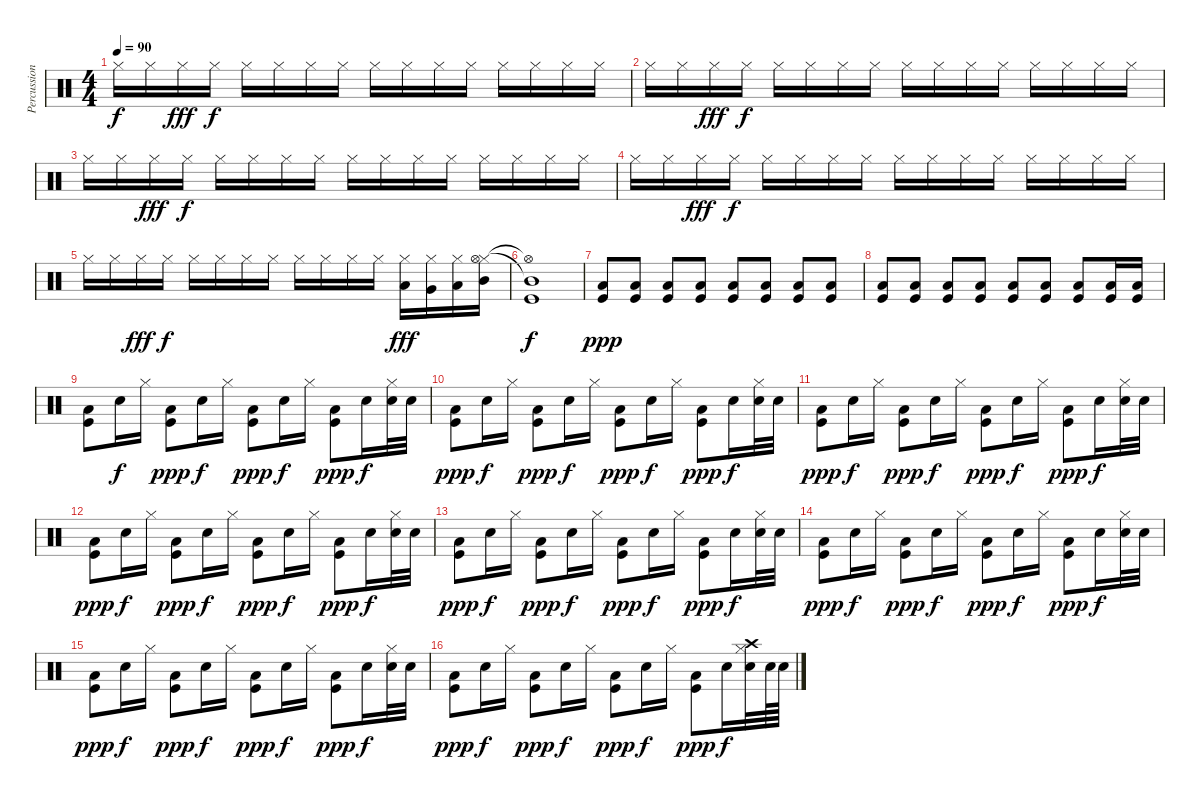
\track ("Percussions" "Percussion") {instrument percussion}
\staff {score}
\articulation defaults
\ts (4 4)
\tempo 90
\clef neutral
\ks c "Hi-Hat (closed)".16{dy f} "Hi-Hat (closed)".16 "Hi-Hat (closed)".16{dy fff} "Hi-Hat (closed)".16{dy f} "Hi-Hat (closed)".16 "Hi-Hat (closed)".16 "Hi-Hat (closed)".16 "Hi-Hat (closed)".16 "Hi-Hat (closed)".16 "Hi-Hat (closed)".16 "Hi-Hat (closed)".16 "Hi-Hat (closed)".16 "Hi-Hat (closed)".16 "Hi-Hat (closed)".16 "Hi-Hat (closed)".16 "Hi-Hat (closed)".16
|
"Hi-Hat (closed)".16 "Hi-Hat (closed)".16 "Hi-Hat (closed)".16{dy fff} "Hi-Hat (closed)".16{dy f} "Hi-Hat (closed)".16 "Hi-Hat (closed)".16 "Hi-Hat (closed)".16 "Hi-Hat (closed)".16 "Hi-Hat (closed)".16 "Hi-Hat (closed)".16 "Hi-Hat (closed)".16 "Hi-Hat (closed)".16 "Hi-Hat (closed)".16 "Hi-Hat (closed)".16 "Hi-Hat (closed)".16 "Hi-Hat (closed)".16 |
"Hi-Hat (closed)".16 "Hi-Hat (closed)".16 "Hi-Hat (closed)".16{dy fff} "Hi-Hat (closed)".16{dy f} "Hi-Hat (closed)".16 "Hi-Hat (closed)".16 "Hi-Hat (closed)".16 "Hi-Hat (closed)".16 "Hi-Hat (closed)".16 "Hi-Hat (closed)".16 "Hi-Hat (closed)".16 "Hi-Hat (closed)".16 "Hi-Hat (closed)".16 "Hi-Hat (closed)".16 "Hi-Hat (closed)".16 "Hi-Hat (closed)".16 |
"Hi-Hat (closed)".16 "Hi-Hat (closed)".16 "Hi-Hat (closed)".16{dy fff} "Hi-Hat (closed)".16{dy f} "Hi-Hat (closed)".16 "Hi-Hat (closed)".16 "Hi-Hat (closed)".16 "Hi-Hat (closed)".16 "Hi-Hat (closed)".16 "Hi-Hat (closed)".16 "Hi-Hat (closed)".16 "Hi-Hat (closed)".16 "Hi-Hat (closed)".16 "Hi-Hat (closed)".16 "Hi-Hat (closed)".16 "Hi-Hat (closed)".16 |
"Hi-Hat (closed)".16 "Hi-Hat (closed)".16 "Hi-Hat (closed)".16{dy fff} "Hi-Hat (closed)".16{dy f} "Hi-Hat (closed)".16 "Hi-Hat (closed)".16 "Hi-Hat (closed)".16 "Hi-Hat (closed)".16 "Hi-Hat (closed)".16 "Hi-Hat (closed)".16 "Hi-Hat (closed)".16 "Hi-Hat (closed)".16 ("Hi-Hat (closed)" "Low Floor Tom (hit)").16{dy fff} ("Hi-Hat (closed)" "Very Low Tom (hit)").16 ("Hi-Hat (closed)" "Low Tom (hit)").16 ("Hi-Hat (closed)" "Hi-Hat (open)" "Mid Tom (hit)").16 |
("Hi-Hat (open)"{t} "Mid Tom (hit)"{t} "Kick (hit)").1{dy f} |
("Kick (hit)" "Low Floor Tom (hit)").8{dy ppp} ("Low Floor Tom (hit)" "Kick (hit)").8 ("Kick (hit)" "Low Floor Tom (hit)").8 ("Low Floor Tom (hit)" "Kick (hit)").8 ("Kick (hit)" "Low Floor Tom (hit)").8 ("Low Floor Tom (hit)" "Kick (hit)").8 ("Kick (hit)" "Low Floor Tom (hit)").8 ("Low Floor Tom (hit)" "Kick (hit)").8 |
("Kick (hit)" "Low Floor Tom (hit)").8 ("Low Floor Tom (hit)" "Kick (hit)").8 ("Kick (hit)" "Low Floor Tom (hit)").8 ("Low Floor Tom (hit)" "Kick (hit)").8 ("Kick (hit)" "Low Floor Tom (hit)").8 ("Low Floor Tom (hit)" "Kick (hit)").8 ("Kick (hit)" "Low Floor Tom (hit)").8 ("Low Floor Tom (hit)" "Kick (hit)").16 ("Kick (hit)" "Low Floor Tom (hit)").16 |
("Kick (hit)" "Low Floor Tom (hit)").8 "Snare (hit) 2".16{dy f} "Hi-Hat (closed)".16 ("Kick (hit)" "Low Floor Tom (hit)").8{dy ppp} "Snare (hit) 2".16{dy f} "Hi-Hat (closed)".16 ("Kick (hit)" "Low Floor Tom (hit)").8{dy ppp} "Snare (hit) 2".16{dy f} "Hi-Hat (closed)".16 ("Low Floor Tom (hit)" "Kick (hit)").8{dy ppp} "Snare (hit) 2".16{dy f} ("Snare (hit) 2" "Hi-Hat (closed)").32 "Snare (hit) 2".32 |
("Kick (hit)" "Low Floor Tom (hit)").8{dy ppp} "Snare (hit) 2".16{dy f} "Hi-Hat (closed)".16 ("Kick (hit)" "Low Floor Tom (hit)").8{dy ppp} "Snare (hit) 2".16{dy f} "Hi-Hat (closed)".16 ("Kick (hit)" "Low Floor Tom (hit)").8{dy ppp} "Snare (hit) 2".16{dy f} "Hi-Hat (closed)".16 ("Low Floor Tom (hit)" "Kick (hit)").8{dy ppp} "Snare (hit) 2".16{dy f} ("Snare (hit) 2" "Hi-Hat (closed)").32 "Snare (hit) 2".32 |
("Kick (hit)" "Low Floor Tom (hit)").8{dy ppp} "Snare (hit) 2".16{dy f} "Hi-Hat (closed)".16 ("Kick (hit)" "Low Floor Tom (hit)").8{dy ppp} "Snare (hit) 2".16{dy f} "Hi-Hat (closed)".16 ("Kick (hit)" "Low Floor Tom (hit)").8{dy ppp} "Snare (hit) 2".16{dy f} "Hi-Hat (closed)".16 ("Low Floor Tom (hit)" "Kick (hit)").8{dy ppp} "Snare (hit) 2".16{dy f} ("Snare (hit) 2" "Hi-Hat (closed)").32 "Snare (hit) 2".32 |
("Kick (hit)" "Low Floor Tom (hit)").8{dy ppp} "Snare (hit) 2".16{dy f} "Hi-Hat (closed)".16 ("Kick (hit)" "Low Floor Tom (hit)").8{dy ppp} "Snare (hit) 2".16{dy f} "Hi-Hat (closed)".16 ("Kick (hit)" "Low Floor Tom (hit)").8{dy ppp} "Snare (hit) 2".16{dy f} "Hi-Hat (closed)".16 ("Low Floor Tom (hit)" "Kick (hit)").8{dy ppp} "Snare (hit) 2".16{dy f} ("Snare (hit) 2" "Hi-Hat (closed)").32 "Snare (hit) 2".32 |
("Kick (hit)" "Low Floor Tom (hit)").8{dy ppp} "Snare (hit) 2".16{dy f} "Hi-Hat (closed)".16 ("Kick (hit)" "Low Floor Tom (hit)").8{dy ppp} "Snare (hit) 2".16{dy f} "Hi-Hat (closed)".16 ("Kick (hit)" "Low Floor Tom (hit)").8{dy ppp} "Snare (hit) 2".16{dy f} "Hi-Hat (closed)".16 ("Low Floor Tom (hit)" "Kick (hit)").8{dy ppp} "Snare (hit) 2".16{dy f} ("Snare (hit) 2" "Hi-Hat (closed)").32 "Snare (hit) 2".32 |
("Kick (hit)" "Low Floor Tom (hit)").8{dy ppp} "Snare (hit) 2".16{dy f} "Hi-Hat (closed)".16 ("Kick (hit)" "Low Floor Tom (hit)").8{dy ppp} "Snare (hit) 2".16{dy f} "Hi-Hat (closed)".16 ("Kick (hit)" "Low Floor Tom (hit)").8{dy ppp} "Snare (hit) 2".16{dy f} "Hi-Hat (closed)".16 ("Low Floor Tom (hit)" "Kick (hit)").8{dy ppp} "Snare (hit) 2".16{dy f} ("Snare (hit) 2" "Hi-Hat (closed)").32 "Snare (hit) 2".32 |
("Kick (hit)" "Low Floor Tom (hit)").8{dy ppp} "Snare (hit) 2".16{dy f} "Hi-Hat (closed)".16 ("Kick (hit)" "Low Floor Tom (hit)").8{dy ppp} "Snare (hit) 2".16{dy f} "Hi-Hat (closed)".16 ("Kick (hit)" "Low Floor Tom (hit)").8{dy ppp} "Snare (hit) 2".16{dy f} "Hi-Hat (closed)".16 ("Low Floor Tom (hit)" "Kick (hit)").8{dy ppp} "Snare (hit) 2".16{dy f} ("Snare (hit) 2" "Hi-Hat (closed)").32 "Snare (hit) 2".32 |
("Kick (hit)" "Low Floor Tom (hit)").8{dy ppp} "Snare (hit) 2".16{dy f} "Hi-Hat (closed)".16 ("Kick (hit)" "Low Floor Tom (hit)").8{dy ppp} "Snare (hit) 2".16{dy f} "Hi-Hat (closed)".16 ("Kick (hit)" "Low Floor Tom (hit)").8{dy ppp} "Snare (hit) 2".16{dy f} "Hi-Hat (closed)".16 ("Low Floor Tom (hit)" "Kick (hit)").8{dy ppp} "Snare (hit) 2".16{dy f} ("Snare (hit) 2" "Crash high (hit)" "Hi-Hat (closed)").32 "Snare (hit) 2".64 "Snare (hit) 2".64
